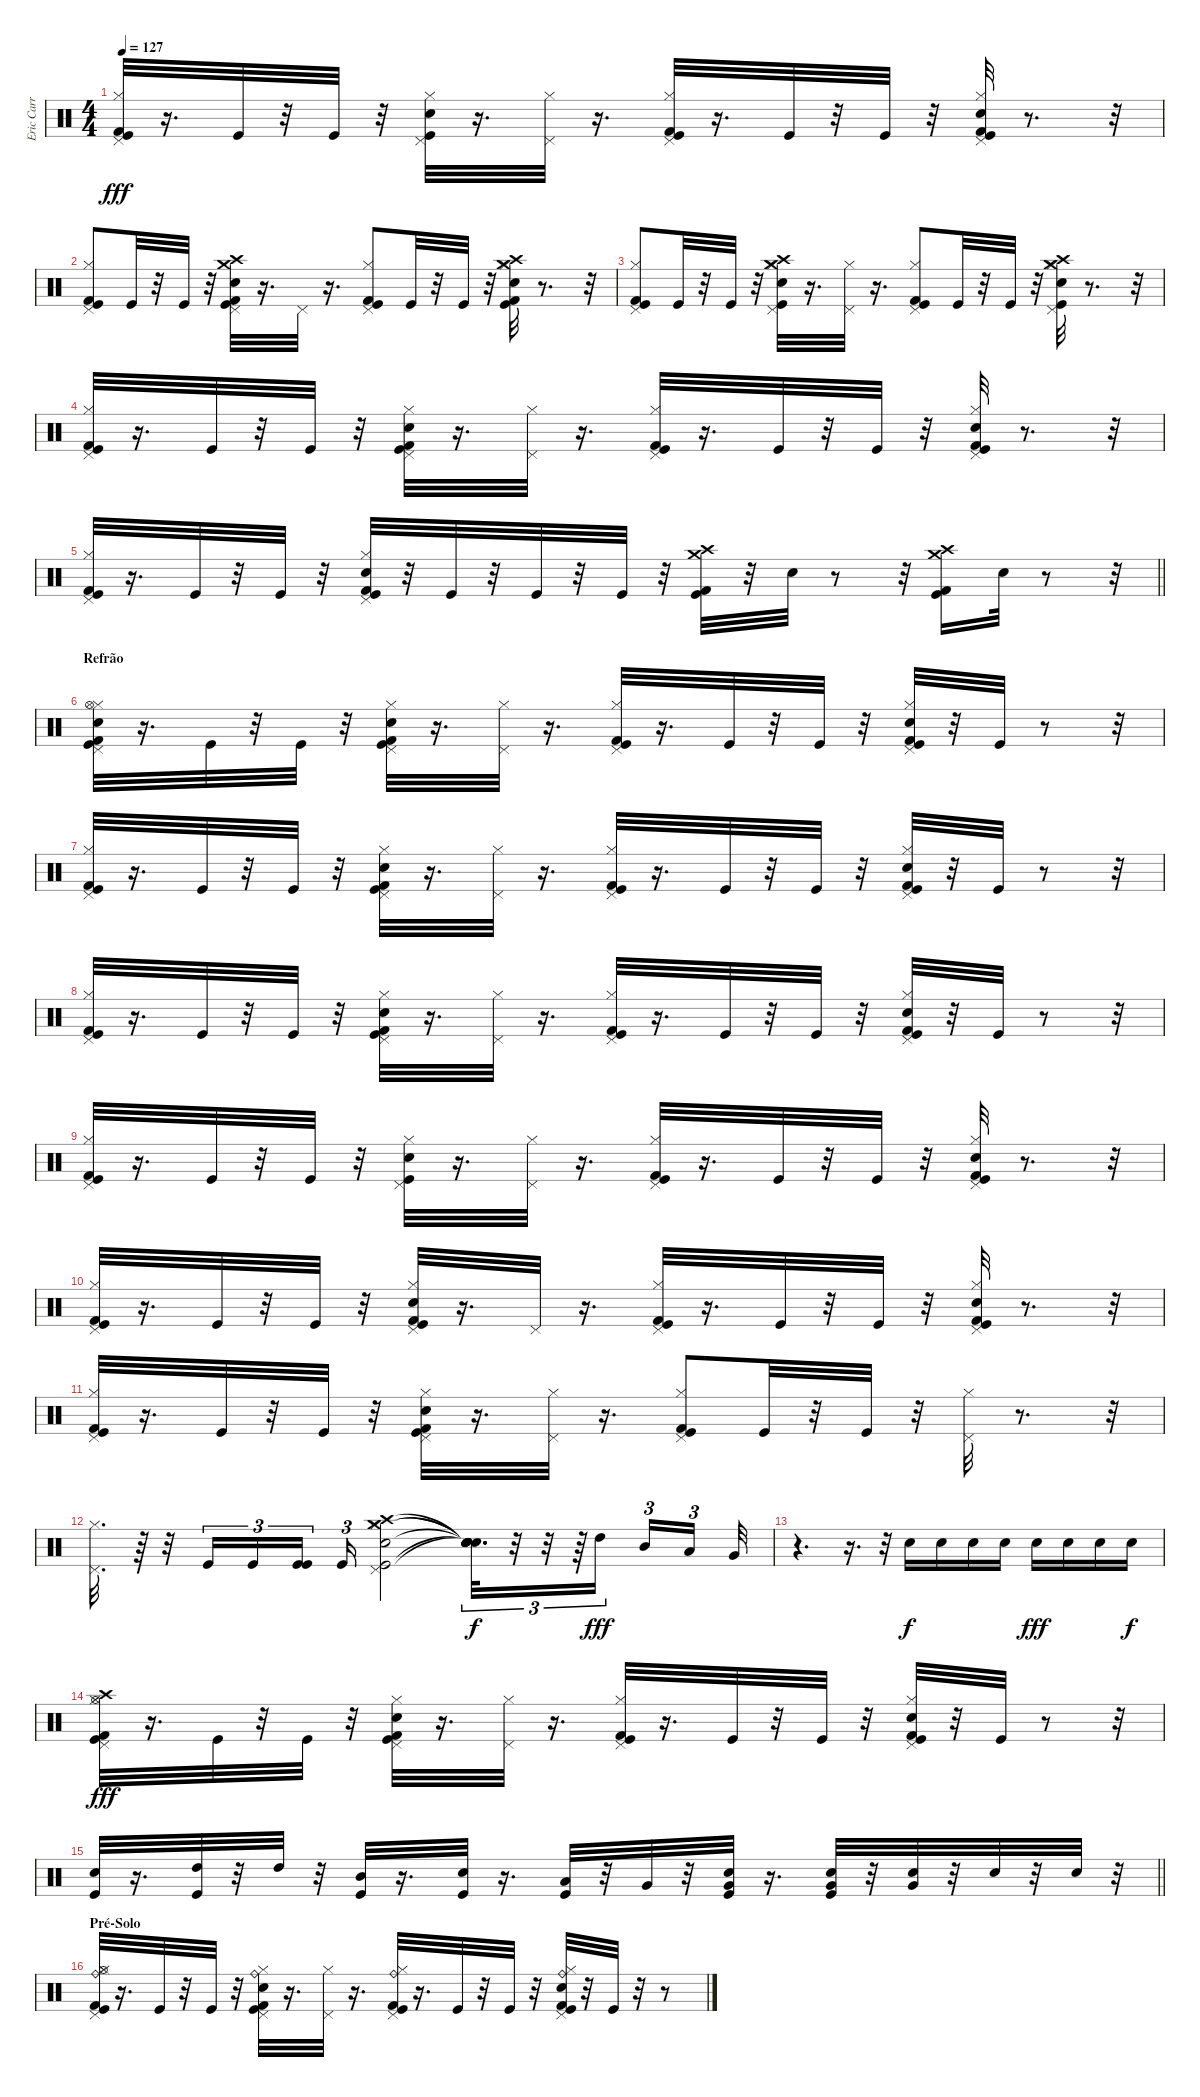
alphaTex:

\track ("Eric Carr - Bateria" "Eric Carr ") {instrument percussion}
\staff {score}
\articulation defaults
\ts (4 4)
\tempo 127
\clef neutral
\ks c
("Pedal Hi-Hat (hit)" "Hi-Hat (closed)" "Kick (hit)" "Kick (hit) 2").32{dy fff} r.16{d} "Kick (hit)".32 r.32 "Kick (hit)".32 r.32 ("Snare (hit) 2" "Hi-Hat (closed)" "Kick (hit)" "Pedal Hi-Hat (hit)").32 r.16{d} ("Pedal Hi-Hat (hit)" "Hi-Hat (closed)").32 r.16{d} ("Hi-Hat (closed)" "Pedal Hi-Hat (hit)" "Kick (hit)" "Kick (hit) 2").32 r.16{d} "Kick (hit)".32 r.32 "Kick (hit)".32 r.32 ("Pedal Hi-Hat (hit)" "Hi-Hat (closed)" "Kick (hit) 2" "Snare (hit) 2" "Kick (hit)").32 r.8{d} r.32 |
("Kick (hit)" "Kick (hit) 2" "Pedal Hi-Hat (hit)" "Hi-Hat (closed)").8 "Kick (hit)".32 r.32 "Kick (hit)".32 r.32 ("Kick (hit) 2" "Kick (hit)" "Snare (hit) 2" "Crash high (hit)" "Crash medium (hit)" "Pedal Hi-Hat (hit)").32 r.16{d} "Pedal Hi-Hat (hit)".32 r.16{d} ("Kick (hit)" "Kick (hit) 2" "Pedal Hi-Hat (hit)" "Hi-Hat (closed)").8 "Kick (hit)".32 r.32 "Kick (hit)".32 r.32 ("Kick (hit) 2" "Kick (hit)" "Crash high (hit)" "Crash medium (hit)" "Hi-Hat (closed)" "Snare (hit) 2").32 r.8{d} r.32 |
("Pedal Hi-Hat (hit)" "Hi-Hat (closed)" "Kick (hit)" "Kick (hit) 2").8 "Kick (hit)".32 r.32 "Kick (hit)".32 r.32 ("Kick (hit)" "Hi-Hat (closed)" "Pedal Hi-Hat (hit)" "Snare (hit) 2" "Crash medium (hit)" "Crash high (hit)").32 r.16{d} ("Hi-Hat (closed)" "Pedal Hi-Hat (hit)").32 r.16{d} ("Kick (hit) 2" "Hi-Hat (closed)" "Kick (hit)" "Pedal Hi-Hat (hit)").8 "Kick (hit)".32 r.32 "Kick (hit)".32 r.32 ("Pedal Hi-Hat (hit)" "Hi-Hat (closed)" "Crash high (hit)" "Crash medium (hit)" "Snare (hit) 2" "Kick (hit)").32 r.8{d} r.32 |
("Hi-Hat (closed)" "Kick (hit) 2" "Kick (hit)" "Pedal Hi-Hat (hit)").32 r.16{d} "Kick (hit)".32 r.32 "Kick (hit)".32 r.32 ("Pedal Hi-Hat (hit)" "Hi-Hat (closed)" "Snare (hit) 2" "Kick (hit)" "Kick (hit) 2").32 r.16{d} ("Hi-Hat (closed)" "Pedal Hi-Hat (hit)").32 r.16{d} ("Kick (hit)" "Kick (hit) 2" "Hi-Hat (closed)" "Pedal Hi-Hat (hit)").32 r.16{d} "Kick (hit)".32 r.32 "Kick (hit)".32 r.32 ("Pedal Hi-Hat (hit)" "Kick (hit)" "Kick (hit) 2" "Hi-Hat (closed)" "Snare (hit) 2").32 r.8{d} r.32 |
\barLineRight lightlight
("Kick (hit) 2" "Kick (hit)" "Pedal Hi-Hat (hit)" "Hi-Hat (closed)").32 r.16{d} "Kick (hit)".32 r.32 "Kick (hit)".32 r.32 ("Kick (hit)" "Pedal Hi-Hat (hit)" "Hi-Hat (closed)" "Kick (hit) 2" "Snare (hit) 2").32 r.32 "Kick (hit)".32 r.32 "Kick (hit)".32 r.32 "Kick (hit)".32 r.32 ("Kick (hit)" "Kick (hit) 2" "Crash medium (hit)" "Crash high (hit)").32 r.32 "Snare (hit) 2".32 r.8 r.32 ("Kick (hit)" "Kick (hit) 2" "Crash medium (hit)" "Crash high (hit)").16 "Snare (hit) 2".32 r.8 r.32 |
\section ("" "Refrão")
("Hi-Hat (closed)" "Kick (hit) 2" "Snare (hit) 2" "Kick (hit)" "Pedal Hi-Hat (hit)" "Hi-Hat (open)").32 r.16{d} "Kick (hit)".32 r.32 "Kick (hit)".32 r.32 ("Kick (hit) 2" "Hi-Hat (closed)" "Pedal Hi-Hat (hit)" "Kick (hit)" "Snare (hit) 2").32 r.16{d} ("Hi-Hat (closed)" "Pedal Hi-Hat (hit)").32 r.16{d} ("Kick (hit)" "Hi-Hat (closed)" "Pedal Hi-Hat (hit)" "Kick (hit) 2").32 r.16{d} "Kick (hit)".32 r.32 "Kick (hit)".32 r.32 ("Hi-Hat (closed)" "Snare (hit) 2" "Kick (hit)" "Kick (hit) 2" "Pedal Hi-Hat (hit)").32 r.32 "Kick (hit)".32 r.8 r.32 |
("Kick (hit) 2" "Kick (hit)" "Hi-Hat (closed)" "Pedal Hi-Hat (hit)").32 r.16{d} "Kick (hit)".32 r.32 "Kick (hit)".32 r.32 ("Pedal Hi-Hat (hit)" "Snare (hit) 2" "Kick (hit) 2" "Kick (hit)" "Hi-Hat (closed)").32 r.16{d} ("Pedal Hi-Hat (hit)" "Hi-Hat (closed)").32 r.16{d} ("Kick (hit) 2" "Kick (hit)" "Pedal Hi-Hat (hit)" "Hi-Hat (closed)").32 r.16{d} "Kick (hit)".32 r.32 "Kick (hit)".32 r.32 ("Kick (hit)" "Snare (hit) 2" "Kick (hit) 2" "Hi-Hat (closed)" "Pedal Hi-Hat (hit)").32 r.32 "Kick (hit)".32 r.8 r.32 |
("Kick (hit) 2" "Pedal Hi-Hat (hit)" "Kick (hit)" "Hi-Hat (closed)").32 r.16{d} "Kick (hit)".32 r.32 "Kick (hit)".32 r.32 ("Pedal Hi-Hat (hit)" "Snare (hit) 2" "Kick (hit) 2" "Hi-Hat (closed)" "Kick (hit)").32 r.16{d} ("Pedal Hi-Hat (hit)" "Hi-Hat (closed)").32 r.16{d} ("Hi-Hat (closed)" "Pedal Hi-Hat (hit)" "Kick (hit)" "Kick (hit) 2").32 r.16{d} "Kick (hit)".32 r.32 "Kick (hit)".32 r.32 ("Snare (hit) 2" "Kick (hit)" "Kick (hit) 2" "Pedal Hi-Hat (hit)" "Hi-Hat (closed)").32 r.32 "Kick (hit)".32 r.8 r.32 |
("Kick (hit) 2" "Hi-Hat (closed)" "Kick (hit)" "Pedal Hi-Hat (hit)").32 r.16{d} "Kick (hit)".32 r.32 "Kick (hit)".32 r.32 ("Kick (hit)" "Snare (hit) 2" "Pedal Hi-Hat (hit)" "Hi-Hat (closed)").32 r.16{d} ("Pedal Hi-Hat (hit)" "Hi-Hat (closed)").32 r.16{d} ("Kick (hit) 2" "Kick (hit)" "Hi-Hat (closed)" "Pedal Hi-Hat (hit)").32 r.16{d} "Kick (hit)".32 r.32 "Kick (hit)".32 r.32 ("Pedal Hi-Hat (hit)" "Kick (hit) 2" "Kick (hit)" "Hi-Hat (closed)" "Snare (hit) 2").32 r.8{d} r.32 |
("Hi-Hat (closed)" "Kick (hit) 2" "Pedal Hi-Hat (hit)" "Kick (hit)").32 r.16{d} "Kick (hit)".32 r.32 "Kick (hit)".32 r.32 ("Kick (hit) 2" "Hi-Hat (closed)" "Kick (hit)" "Snare (hit) 2" "Pedal Hi-Hat (hit)").32 r.16{d} "Pedal Hi-Hat (hit)".32 r.16{d} ("Hi-Hat (closed)" "Pedal Hi-Hat (hit)" "Kick (hit)" "Kick (hit) 2").32 r.16{d} "Kick (hit)".32 r.32 "Kick (hit)".32 r.32 ("Kick (hit) 2" "Kick (hit)" "Hi-Hat (closed)" "Snare (hit) 2" "Pedal Hi-Hat (hit)").32 r.8{d} r.32 |
("Kick (hit) 2" "Pedal Hi-Hat (hit)" "Hi-Hat (closed)" "Kick (hit)").32 r.16{d} "Kick (hit)".32 r.32 "Kick (hit)".32 r.32 ("Pedal Hi-Hat (hit)" "Hi-Hat (closed)" "Kick (hit)" "Kick (hit) 2" "Snare (hit) 2").32 r.16{d} ("Hi-Hat (closed)" "Pedal Hi-Hat (hit)").32 r.16{d} ("Hi-Hat (closed)" "Pedal Hi-Hat (hit)" "Kick (hit)" "Kick (hit) 2").8 "Kick (hit)".32 r.32 "Kick (hit)".32 r.32 ("Pedal Hi-Hat (hit)" "Hi-Hat (closed)").32 r.8{d} r.32 |
("Hi-Hat (closed)" "Pedal Hi-Hat (hit)").32{d} r.64 r.32 "Kick (hit)".16{tu (3 2)} "Kick (hit)".16{tu (3 2)} ("Kick (hit)" "Kick (hit)").16{tu (3 2) beam splitsecondary} "Kick (hit)".16{tu (3 2)} ("Crash medium (hit)" "Crash high (hit)" "Hi-Hat (closed)" "Pedal Hi-Hat (hit)" "Snare (hit) 2" "Kick (hit)").2 ("Snare (hit)"{t} "Snare (hit)"{t} "Snare (hit)"{t} "Snare (hit)"{t} "Snare (hit)"{t} "Snare (hit)"{t}).32{d tu (3 2) dy f} r.32{tu (3 2)} r.32{tu (3 2)} r.64{tu (3 2)} "High Tom (hit)".16{tu (3 2) dy fff} "Mid Tom (hit)".16{tu (3 2)} "Low Tom (hit)".16{tu (3 2) beam splitsecondary} "Very Low Tom (hit)".32 |
r.4{d} r.16{d} r.32 "Snare (hit) 2".16{dy f} "Snare (hit) 2".16 "Snare (hit) 2".16 "Snare (hit) 2".16 "Snare (hit) 2".16{dy fff} "Snare (hit) 2".16 "Snare (hit) 2".16 "Snare (hit) 2".16{dy f} |
("Hi-Hat (closed)" "Pedal Hi-Hat (hit)" "Hi-Hat (open)" "Kick (hit) 2" "Kick (hit)" "Crash high (hit)").32{dy fff} r.16{d} "Kick (hit)".32 r.32 "Kick (hit)".32 r.32 ("Hi-Hat (closed)" "Kick (hit) 2" "Kick (hit)" "Snare (hit) 2" "Pedal Hi-Hat (hit)").32 r.16{d} ("Pedal Hi-Hat (hit)" "Hi-Hat (closed)").32 r.16{d} ("Hi-Hat (closed)" "Pedal Hi-Hat (hit)" "Kick (hit) 2" "Kick (hit)").32 r.16{d} "Kick (hit)".32 r.32 "Kick (hit)".32 r.32 ("Hi-Hat (closed)" "Pedal Hi-Hat (hit)" "Snare (hit) 2" "Kick (hit)" "Kick (hit) 2").32 r.32 "Kick (hit)".32 r.8 r.32 |
\barLineRight lightlight
("Kick (hit)" "Snare (hit) 2").32 r.16{d} ("Kick (hit)" "High Tom (hit)").32 r.32 "High Tom (hit)".32 r.32 ("Kick (hit)" "Mid Tom (hit)").32 r.16{d} ("Kick (hit)" "Snare (hit) 2").32 r.16{d} ("Kick (hit)" "Low Tom (hit)").32 r.32 "Very Low Tom (hit)".32 r.32 ("Very Low Tom (hit)" "Kick (hit)" "Snare (hit) 2").32 r.16{d} ("Very Low Tom (hit)" "Snare (hit) 2" "Kick (hit)").32 r.32 ("Snare (hit) 2" "Very Low Tom (hit)").32 r.32 "Snare (hit) 2".32 r.32 "Snare (hit) 2".32 r.32 |
\section ("" "Pré-Solo")
("Ride (bell)" "Hi-Hat (closed)" "Pedal Hi-Hat (hit)" "Hi-Hat (open)" "Kick (hit) 2" "Kick (hit)").32 r.16{d} "Kick (hit)".32 r.32 "Kick (hit)".32 r.32 ("Ride (bell)" "Snare (hit) 2" "Kick (hit)" "Kick (hit) 2" "Pedal Hi-Hat (hit)" "Hi-Hat (closed)").32 r.16{d} ("Hi-Hat (closed)" "Pedal Hi-Hat (hit)").32 r.16{d} ("Ride (bell)" "Pedal Hi-Hat (hit)" "Kick (hit) 2" "Hi-Hat (closed)" "Kick (hit)").32 r.16{d} "Kick (hit)".32 r.32 "Kick (hit)".32 r.32 ("Ride (bell)" "Hi-Hat (closed)" "Kick (hit) 2" "Kick (hit)" "Pedal Hi-Hat (hit)" "Snare (hit) 2").32 r.32 "Kick (hit)".32 r.32 r.8
